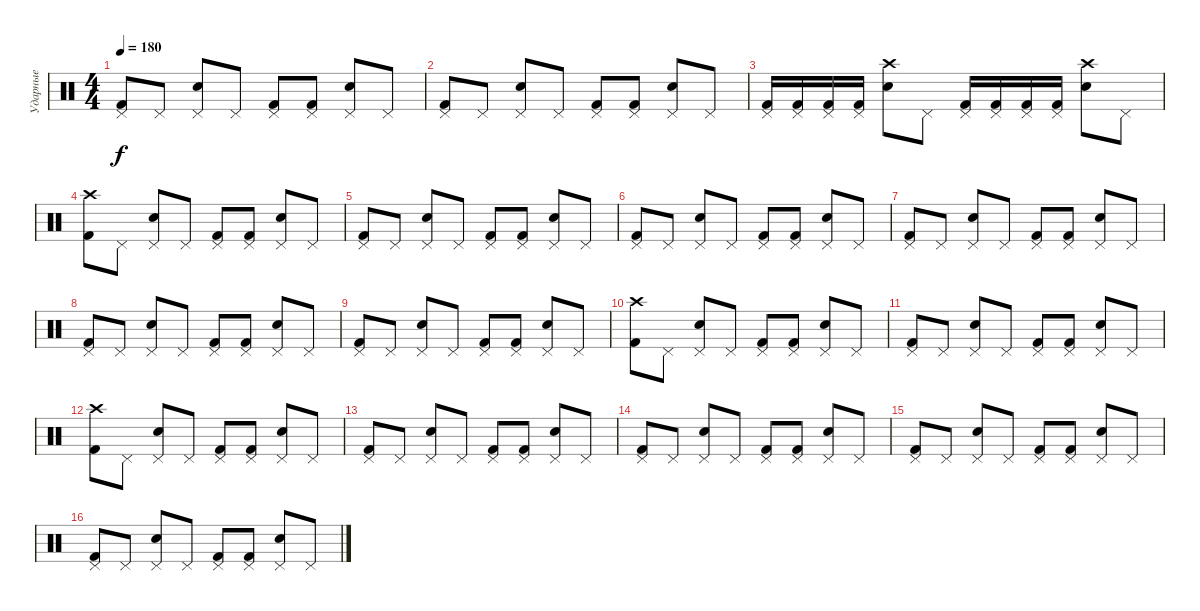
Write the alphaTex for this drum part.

\track ("Ударные" "Ударные") {instrument percussion}
\staff {score}
\articulation defaults
\ts (4 4)
\tempo 180
\clef neutral
\ks c
("Kick (hit) 2" "Pedal Hi-Hat (hit)").8{dy f} "Pedal Hi-Hat (hit)".8 ("Electric Snare (hit)" "Pedal Hi-Hat (hit)").8 "Pedal Hi-Hat (hit)".8 ("Pedal Hi-Hat (hit)" "Kick (hit) 2").8 ("Pedal Hi-Hat (hit)" "Kick (hit) 2").8 ("Electric Snare (hit)" "Pedal Hi-Hat (hit)").8 "Pedal Hi-Hat (hit)".8 |
("Kick (hit) 2" "Pedal Hi-Hat (hit)").8 "Pedal Hi-Hat (hit)".8 ("Electric Snare (hit)" "Pedal Hi-Hat (hit)").8 "Pedal Hi-Hat (hit)".8 ("Pedal Hi-Hat (hit)" "Kick (hit) 2").8 ("Pedal Hi-Hat (hit)" "Kick (hit) 2").8 ("Electric Snare (hit)" "Pedal Hi-Hat (hit)").8 "Pedal Hi-Hat (hit)".8 |
("Kick (hit) 2" "Pedal Hi-Hat (hit)").16 ("Kick (hit) 2" "Pedal Hi-Hat (hit)").16 ("Kick (hit) 2" "Pedal Hi-Hat (hit)").16 ("Kick (hit) 2" "Pedal Hi-Hat (hit)").16 ("Electric Snare (hit)" "Crash high (hit)").8 "Pedal Hi-Hat (hit)".8 ("Kick (hit) 2" "Pedal Hi-Hat (hit)").16 ("Kick (hit) 2" "Pedal Hi-Hat (hit)").16 ("Kick (hit) 2" "Pedal Hi-Hat (hit)").16 ("Kick (hit) 2" "Pedal Hi-Hat (hit)").16 ("Electric Snare (hit)" "Crash high (hit)").8 "Pedal Hi-Hat (hit)".8 |
("Kick (hit) 2" "Crash high (hit)").8 "Pedal Hi-Hat (hit)".8 ("Electric Snare (hit)" "Pedal Hi-Hat (hit)").8 "Pedal Hi-Hat (hit)".8 ("Pedal Hi-Hat (hit)" "Kick (hit) 2").8 ("Pedal Hi-Hat (hit)" "Kick (hit) 2").8 ("Electric Snare (hit)" "Pedal Hi-Hat (hit)").8 "Pedal Hi-Hat (hit)".8 |
("Kick (hit) 2" "Pedal Hi-Hat (hit)").8 "Pedal Hi-Hat (hit)".8 ("Electric Snare (hit)" "Pedal Hi-Hat (hit)").8 "Pedal Hi-Hat (hit)".8 ("Pedal Hi-Hat (hit)" "Kick (hit) 2").8 ("Pedal Hi-Hat (hit)" "Kick (hit) 2").8 ("Electric Snare (hit)" "Pedal Hi-Hat (hit)").8 "Pedal Hi-Hat (hit)".8 |
("Kick (hit) 2" "Pedal Hi-Hat (hit)").8 "Pedal Hi-Hat (hit)".8 ("Electric Snare (hit)" "Pedal Hi-Hat (hit)").8 "Pedal Hi-Hat (hit)".8 ("Pedal Hi-Hat (hit)" "Kick (hit) 2").8 ("Pedal Hi-Hat (hit)" "Kick (hit) 2").8 ("Electric Snare (hit)" "Pedal Hi-Hat (hit)").8 "Pedal Hi-Hat (hit)".8 |
("Kick (hit) 2" "Pedal Hi-Hat (hit)").8 "Pedal Hi-Hat (hit)".8 ("Electric Snare (hit)" "Pedal Hi-Hat (hit)").8 "Pedal Hi-Hat (hit)".8 ("Pedal Hi-Hat (hit)" "Kick (hit) 2").8 ("Pedal Hi-Hat (hit)" "Kick (hit) 2").8 ("Electric Snare (hit)" "Pedal Hi-Hat (hit)").8 "Pedal Hi-Hat (hit)".8 |
("Kick (hit) 2" "Pedal Hi-Hat (hit)").8 "Pedal Hi-Hat (hit)".8 ("Electric Snare (hit)" "Pedal Hi-Hat (hit)").8 "Pedal Hi-Hat (hit)".8 ("Pedal Hi-Hat (hit)" "Kick (hit) 2").8 ("Pedal Hi-Hat (hit)" "Kick (hit) 2").8 ("Electric Snare (hit)" "Pedal Hi-Hat (hit)").8 "Pedal Hi-Hat (hit)".8 |
("Kick (hit) 2" "Pedal Hi-Hat (hit)").8 "Pedal Hi-Hat (hit)".8 ("Electric Snare (hit)" "Pedal Hi-Hat (hit)").8 "Pedal Hi-Hat (hit)".8 ("Pedal Hi-Hat (hit)" "Kick (hit) 2").8 ("Pedal Hi-Hat (hit)" "Kick (hit) 2").8 ("Electric Snare (hit)" "Pedal Hi-Hat (hit)").8 "Pedal Hi-Hat (hit)".8 |
("Kick (hit) 2" "Crash high (hit)").8 "Pedal Hi-Hat (hit)".8 ("Electric Snare (hit)" "Pedal Hi-Hat (hit)").8 "Pedal Hi-Hat (hit)".8 ("Pedal Hi-Hat (hit)" "Kick (hit) 2").8 ("Pedal Hi-Hat (hit)" "Kick (hit) 2").8 ("Electric Snare (hit)" "Pedal Hi-Hat (hit)").8 "Pedal Hi-Hat (hit)".8 |
("Kick (hit) 2" "Pedal Hi-Hat (hit)").8 "Pedal Hi-Hat (hit)".8 ("Electric Snare (hit)" "Pedal Hi-Hat (hit)").8 "Pedal Hi-Hat (hit)".8 ("Pedal Hi-Hat (hit)" "Kick (hit) 2").8 ("Pedal Hi-Hat (hit)" "Kick (hit) 2").8 ("Electric Snare (hit)" "Pedal Hi-Hat (hit)").8 "Pedal Hi-Hat (hit)".8 |
("Kick (hit) 2" "Crash high (hit)").8 "Pedal Hi-Hat (hit)".8 ("Electric Snare (hit)" "Pedal Hi-Hat (hit)").8 "Pedal Hi-Hat (hit)".8 ("Pedal Hi-Hat (hit)" "Kick (hit) 2").8 ("Pedal Hi-Hat (hit)" "Kick (hit) 2").8 ("Electric Snare (hit)" "Pedal Hi-Hat (hit)").8 "Pedal Hi-Hat (hit)".8 |
("Kick (hit) 2" "Pedal Hi-Hat (hit)").8 "Pedal Hi-Hat (hit)".8 ("Electric Snare (hit)" "Pedal Hi-Hat (hit)").8 "Pedal Hi-Hat (hit)".8 ("Pedal Hi-Hat (hit)" "Kick (hit) 2").8 ("Pedal Hi-Hat (hit)" "Kick (hit) 2").8 ("Electric Snare (hit)" "Pedal Hi-Hat (hit)").8 "Pedal Hi-Hat (hit)".8 |
("Kick (hit) 2" "Pedal Hi-Hat (hit)").8 "Pedal Hi-Hat (hit)".8 ("Electric Snare (hit)" "Pedal Hi-Hat (hit)").8 "Pedal Hi-Hat (hit)".8 ("Pedal Hi-Hat (hit)" "Kick (hit) 2").8 ("Pedal Hi-Hat (hit)" "Kick (hit) 2").8 ("Electric Snare (hit)" "Pedal Hi-Hat (hit)").8 "Pedal Hi-Hat (hit)".8 |
("Kick (hit) 2" "Pedal Hi-Hat (hit)").8 "Pedal Hi-Hat (hit)".8 ("Electric Snare (hit)" "Pedal Hi-Hat (hit)").8 "Pedal Hi-Hat (hit)".8 ("Pedal Hi-Hat (hit)" "Kick (hit) 2").8 ("Pedal Hi-Hat (hit)" "Kick (hit) 2").8 ("Electric Snare (hit)" "Pedal Hi-Hat (hit)").8 "Pedal Hi-Hat (hit)".8 |
("Kick (hit) 2" "Pedal Hi-Hat (hit)").8 "Pedal Hi-Hat (hit)".8 ("Electric Snare (hit)" "Pedal Hi-Hat (hit)").8 "Pedal Hi-Hat (hit)".8 ("Pedal Hi-Hat (hit)" "Kick (hit) 2").8 ("Pedal Hi-Hat (hit)" "Kick (hit) 2").8 ("Electric Snare (hit)" "Pedal Hi-Hat (hit)").8 "Pedal Hi-Hat (hit)".8
